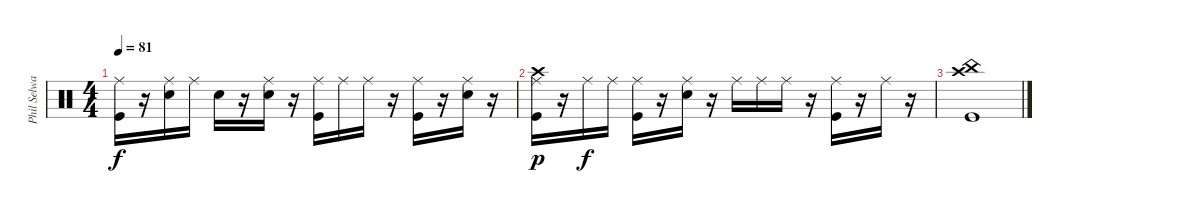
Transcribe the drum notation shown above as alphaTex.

\track ("Phil Selway (Percussions)" "Phil Selwa") {instrument percussion}
\staff {score}
\articulation defaults
\ts (4 4)
\tempo 81
\clef neutral
\ks c
("Ride (middle)" "Kick (hit)").16{dy f} r.16 ("Ride (middle)" "Electric Snare (hit)").16 "Ride (middle)".16 "Snare (hit)".16 r.16 ("Ride (middle)" "Electric Snare (hit)").16 r.16 ("Ride (middle)" "Kick (hit)").16 "Ride (middle)".16 "Ride (middle)".16 r.16 ("Ride (middle)" "Kick (hit)").16 r.16 ("Ride (middle)" "Electric Snare (hit)").16 r.16 |
("Ride (middle)" "Crash high (hit)" "Kick (hit)").16{dy p} r.16 "Ride (middle)".16{dy f} "Ride (middle)".16 ("Ride (middle)" "Kick (hit)").16 r.16 ("Ride (middle)" "Electric Snare (hit)").16 r.16 "Ride (middle)".16 "Ride (middle)".16 "Ride (middle)".16 r.16 ("Ride (middle)" "Kick (hit)").16 r.16 "Ride (middle)".16 r.16 |
("China (hit)" "Crash high (hit)" "Kick (hit)").1
